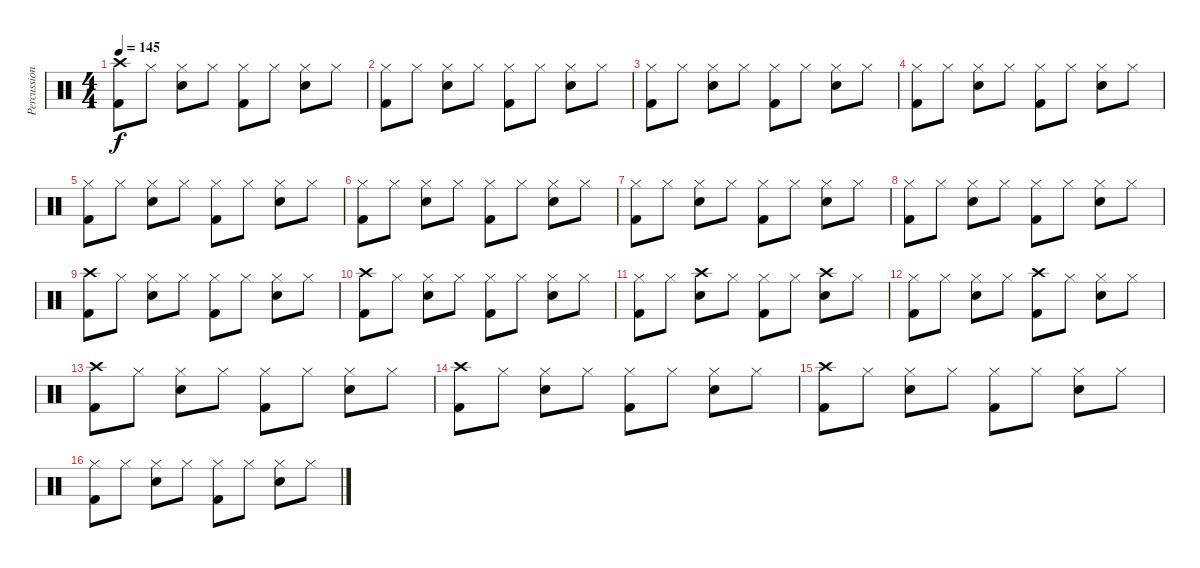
\track ("Percussion" "Percussion") {instrument percussion}
\staff {score}
\articulation defaults
\ts (4 4)
\tempo 145
\clef neutral
\ks c
("Crash high (hit)" "Kick (hit) 2").8{dy f} "Hi-Hat (closed)".8 ("Hi-Hat (closed)" "Snare (hit) 2").8 "Hi-Hat (closed)".8 ("Hi-Hat (closed)" "Kick (hit) 2").8 "Hi-Hat (closed)".8 ("Hi-Hat (closed)" "Snare (hit) 2").8 "Hi-Hat (closed)".8 |
("Hi-Hat (closed)" "Kick (hit) 2").8 "Hi-Hat (closed)".8 ("Hi-Hat (closed)" "Snare (hit) 2").8 "Hi-Hat (closed)".8 ("Hi-Hat (closed)" "Kick (hit) 2").8 "Hi-Hat (closed)".8 ("Hi-Hat (closed)" "Snare (hit) 2").8 "Hi-Hat (closed)".8 |
("Hi-Hat (closed)" "Kick (hit) 2").8 "Hi-Hat (closed)".8 ("Hi-Hat (closed)" "Snare (hit) 2").8 "Hi-Hat (closed)".8 ("Hi-Hat (closed)" "Kick (hit) 2").8 "Hi-Hat (closed)".8 ("Hi-Hat (closed)" "Snare (hit) 2").8 "Hi-Hat (closed)".8 |
("Hi-Hat (closed)" "Kick (hit) 2").8 "Hi-Hat (closed)".8 ("Hi-Hat (closed)" "Snare (hit) 2").8 "Hi-Hat (closed)".8 ("Hi-Hat (closed)" "Kick (hit) 2").8 "Hi-Hat (closed)".8 ("Hi-Hat (closed)" "Snare (hit) 2").8 "Hi-Hat (closed)".8 |
("Hi-Hat (closed)" "Kick (hit) 2").8 "Hi-Hat (closed)".8 ("Hi-Hat (closed)" "Snare (hit) 2").8 "Hi-Hat (closed)".8 ("Hi-Hat (closed)" "Kick (hit) 2").8 "Hi-Hat (closed)".8 ("Hi-Hat (closed)" "Snare (hit) 2").8 "Hi-Hat (closed)".8 |
("Hi-Hat (closed)" "Kick (hit) 2").8 "Hi-Hat (closed)".8 ("Hi-Hat (closed)" "Snare (hit) 2").8 "Hi-Hat (closed)".8 ("Hi-Hat (closed)" "Kick (hit) 2").8 "Hi-Hat (closed)".8 ("Hi-Hat (closed)" "Snare (hit) 2").8 "Hi-Hat (closed)".8 |
("Hi-Hat (closed)" "Kick (hit) 2").8 "Hi-Hat (closed)".8 ("Hi-Hat (closed)" "Snare (hit) 2").8 "Hi-Hat (closed)".8 ("Hi-Hat (closed)" "Kick (hit) 2").8 "Hi-Hat (closed)".8 ("Hi-Hat (closed)" "Snare (hit) 2").8 "Hi-Hat (closed)".8 |
("Hi-Hat (closed)" "Kick (hit) 2").8 "Hi-Hat (closed)".8 ("Hi-Hat (closed)" "Snare (hit) 2").8 "Hi-Hat (closed)".8 ("Hi-Hat (closed)" "Kick (hit) 2").8 "Hi-Hat (closed)".8 ("Hi-Hat (closed)" "Snare (hit) 2").8 "Hi-Hat (closed)".8 |
("Crash high (hit)" "Kick (hit) 2").8 "Hi-Hat (closed)".8 ("Hi-Hat (closed)" "Snare (hit) 2").8 "Hi-Hat (closed)".8 ("Hi-Hat (closed)" "Kick (hit) 2").8 "Hi-Hat (closed)".8 ("Hi-Hat (closed)" "Snare (hit) 2").8 "Hi-Hat (closed)".8 |
("Crash high (hit)" "Kick (hit) 2").8 "Hi-Hat (closed)".8 ("Hi-Hat (closed)" "Snare (hit) 2").8 "Hi-Hat (closed)".8 ("Hi-Hat (closed)" "Kick (hit) 2").8 "Hi-Hat (closed)".8 ("Hi-Hat (closed)" "Snare (hit) 2").8 "Hi-Hat (closed)".8 |
("Hi-Hat (closed)" "Kick (hit) 2").8 "Hi-Hat (closed)".8 ("Crash high (hit)" "Snare (hit) 2").8 "Hi-Hat (closed)".8 ("Hi-Hat (closed)" "Kick (hit) 2").8 "Hi-Hat (closed)".8 ("Crash high (hit)" "Snare (hit) 2").8 "Hi-Hat (closed)".8 |
("Hi-Hat (closed)" "Kick (hit) 2").8 "Hi-Hat (closed)".8 ("Hi-Hat (closed)" "Snare (hit) 2").8 "Hi-Hat (closed)".8 ("Crash high (hit)" "Kick (hit) 2").8 "Hi-Hat (closed)".8 ("Hi-Hat (closed)" "Snare (hit) 2").8 "Hi-Hat (closed)".8 |
("Crash high (hit)" "Kick (hit) 2").8 "Hi-Hat (closed)".8 ("Hi-Hat (closed)" "Snare (hit) 2").8 "Hi-Hat (closed)".8 ("Hi-Hat (closed)" "Kick (hit) 2").8 "Hi-Hat (closed)".8 ("Hi-Hat (closed)" "Snare (hit) 2").8 "Hi-Hat (closed)".8 |
("Crash high (hit)" "Kick (hit) 2").8 "Hi-Hat (closed)".8 ("Hi-Hat (closed)" "Snare (hit) 2").8 "Hi-Hat (closed)".8 ("Hi-Hat (closed)" "Kick (hit) 2").8 "Hi-Hat (closed)".8 ("Hi-Hat (closed)" "Snare (hit) 2").8 "Hi-Hat (closed)".8 |
("Crash high (hit)" "Kick (hit) 2").8 "Hi-Hat (closed)".8 ("Hi-Hat (closed)" "Snare (hit) 2").8 "Hi-Hat (closed)".8 ("Hi-Hat (closed)" "Kick (hit) 2").8 "Hi-Hat (closed)".8 ("Hi-Hat (closed)" "Snare (hit) 2").8 "Hi-Hat (closed)".8 |
("Hi-Hat (closed)" "Kick (hit) 2").8 "Hi-Hat (closed)".8 ("Hi-Hat (closed)" "Snare (hit) 2").8 "Hi-Hat (closed)".8 ("Hi-Hat (closed)" "Kick (hit) 2").8 "Hi-Hat (closed)".8 ("Hi-Hat (closed)" "Snare (hit) 2").8 "Hi-Hat (closed)".8
